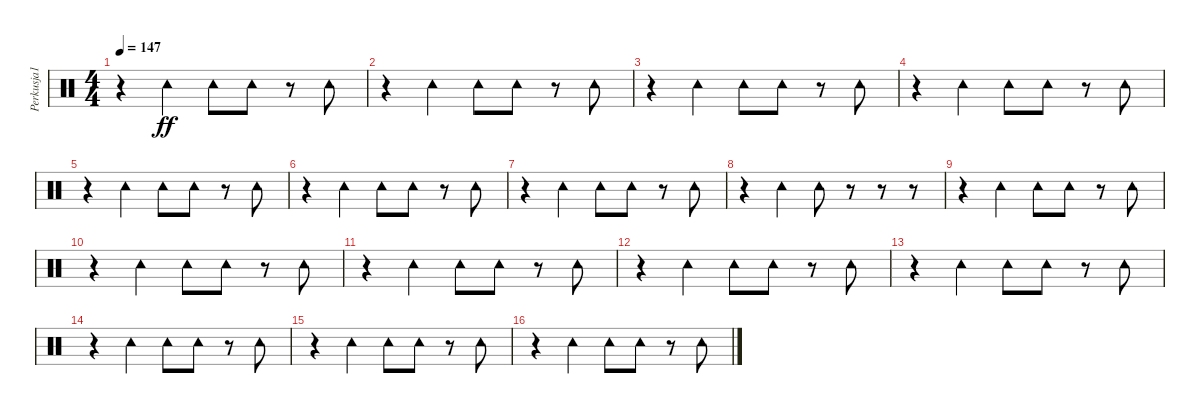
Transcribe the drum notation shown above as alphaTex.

\track ("Perkusja1" "Perkusja1") {instrument percussion}
\staff {score}
\articulation defaults
\ts (4 4)
\tempo 147
\clef neutral
\ks c
r.4{dy f} "Tambourine (hit)".4{dy ff} "Tambourine (hit)".8 "Tambourine (hit)".8 r.8 "Tambourine (hit)".8 |
r.4 "Tambourine (hit)".4 "Tambourine (hit)".8 "Tambourine (hit)".8 r.8 "Tambourine (hit)".8 |
r.4 "Tambourine (hit)".4 "Tambourine (hit)".8 "Tambourine (hit)".8 r.8 "Tambourine (hit)".8 |
r.4 "Tambourine (hit)".4 "Tambourine (hit)".8 "Tambourine (hit)".8 r.8 "Tambourine (hit)".8 |
r.4 "Tambourine (hit)".4 "Tambourine (hit)".8 "Tambourine (hit)".8 r.8 "Tambourine (hit)".8 |
r.4 "Tambourine (hit)".4 "Tambourine (hit)".8 "Tambourine (hit)".8 r.8 "Tambourine (hit)".8 |
r.4 "Tambourine (hit)".4 "Tambourine (hit)".8 "Tambourine (hit)".8 r.8 "Tambourine (hit)".8 |
r.4 "Tambourine (hit)".4 "Tambourine (hit)".8 r.8 r.8 r.8 |
r.4 "Tambourine (hit)".4 "Tambourine (hit)".8 "Tambourine (hit)".8 r.8 "Tambourine (hit)".8 |
r.4 "Tambourine (hit)".4 "Tambourine (hit)".8 "Tambourine (hit)".8 r.8 "Tambourine (hit)".8 |
r.4 "Tambourine (hit)".4 "Tambourine (hit)".8 "Tambourine (hit)".8 r.8 "Tambourine (hit)".8 |
r.4 "Tambourine (hit)".4 "Tambourine (hit)".8 "Tambourine (hit)".8 r.8 "Tambourine (hit)".8 |
r.4{volume 10} "Tambourine (hit)".4 "Tambourine (hit)".8 "Tambourine (hit)".8 r.8 "Tambourine (hit)".8 |
r.4 "Tambourine (hit)".4 "Tambourine (hit)".8 "Tambourine (hit)".8 r.8 "Tambourine (hit)".8 |
r.4{volume 9} "Tambourine (hit)".4 "Tambourine (hit)".8 "Tambourine (hit)".8 r.8 "Tambourine (hit)".8 |
r.4 "Tambourine (hit)".4 "Tambourine (hit)".8 "Tambourine (hit)".8 r.8 "Tambourine (hit)".8
